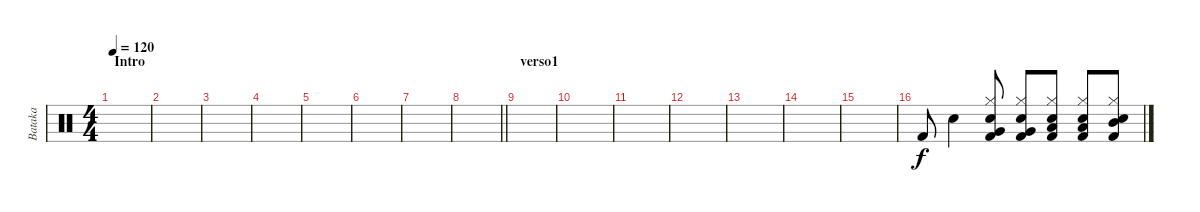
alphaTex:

\track ("Bataka" "Bataka") {instrument percussion}
\staff {score}
\articulation defaults
\ts (4 4)
\section ("" "Intro")
\tempo 120
\clef neutral
\ks c
|
|
|
|
|
|
|
\barLineRight lightlight
|
\section ("" "verso1")
|
|
|
|
|
|
|
"Kick (hit) 2".8 "Electric Snare (hit)".4 ("Electric Snare (hit)" "Hi-Hat (closed)" "Kick (hit) 2" "Very Low Tom (hit)").8 ("Electric Snare (hit)" "Hi-Hat (closed)" "Kick (hit) 2" "Very Low Tom (hit)").8 ("Electric Snare (hit)" "Hi-Hat (closed)" "Kick (hit) 2" "Low Tom (hit)").8 ("Electric Snare (hit)" "Hi-Hat (closed)" "Kick (hit) 2" "Low Tom (hit)").8 ("Electric Snare (hit)" "Hi-Hat (closed)" "Kick (hit) 2" "Mid Tom (hit)").8
